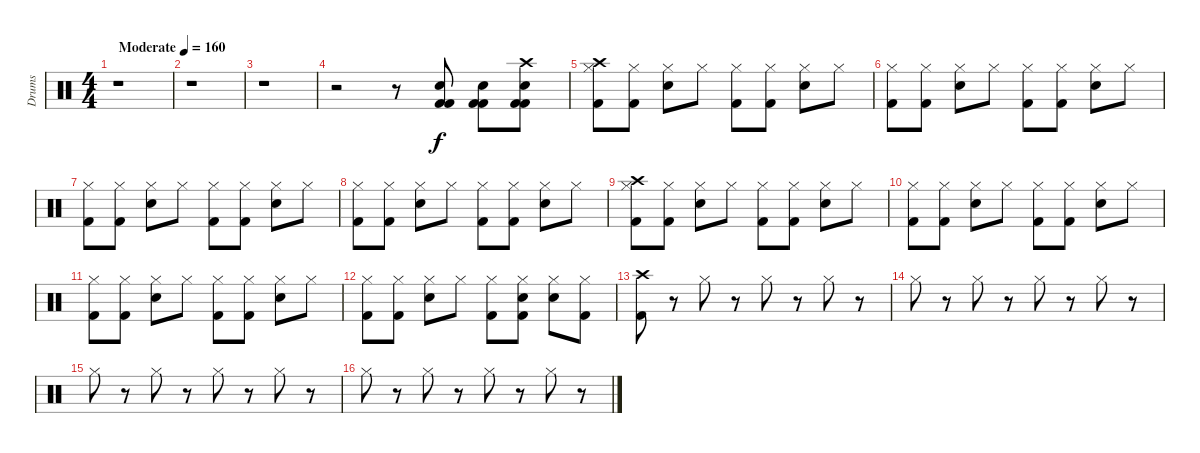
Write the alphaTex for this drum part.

\track ("Drums" "Drums") {instrument percussion}
\staff {score}
\articulation defaults
\ts (4 4)
\tempo (160 "Moderate")
\clef neutral
\ks c
r.1{dy f} |
r.1 |
r.1 |
r.2 r.8 ("Kick (hit) 2" "Kick (hit) 2" "Electric Snare (hit)").8 ("Kick (hit) 2" "Kick (hit) 2" "Electric Snare (hit)").8 ("Kick (hit) 2" "Kick (hit) 2" "Electric Snare (hit)" "Crash high (hit)").8 |
("Kick (hit) 2" "Crash high (hit)" "Hi-Hat (closed)").8 ("Kick (hit) 2" "Hi-Hat (closed)").8 ("Electric Snare (hit)" "Hi-Hat (closed)").8 "Hi-Hat (closed)".8 ("Kick (hit) 2" "Hi-Hat (closed)").8 ("Kick (hit) 2" "Hi-Hat (closed)").8 ("Electric Snare (hit)" "Hi-Hat (closed)").8 "Hi-Hat (closed)".8 |
("Kick (hit) 2" "Hi-Hat (closed)").8 ("Kick (hit) 2" "Hi-Hat (closed)").8 ("Electric Snare (hit)" "Hi-Hat (closed)").8 "Hi-Hat (closed)".8 ("Kick (hit) 2" "Hi-Hat (closed)").8 ("Kick (hit) 2" "Hi-Hat (closed)").8 ("Electric Snare (hit)" "Hi-Hat (closed)").8 "Hi-Hat (closed)".8 |
("Kick (hit) 2" "Hi-Hat (closed)").8 ("Kick (hit) 2" "Hi-Hat (closed)").8 ("Electric Snare (hit)" "Hi-Hat (closed)").8 "Hi-Hat (closed)".8 ("Kick (hit) 2" "Hi-Hat (closed)").8 ("Kick (hit) 2" "Hi-Hat (closed)").8 ("Electric Snare (hit)" "Hi-Hat (closed)").8 "Hi-Hat (closed)".8 |
("Kick (hit) 2" "Hi-Hat (closed)").8 ("Kick (hit) 2" "Hi-Hat (closed)").8 ("Electric Snare (hit)" "Hi-Hat (closed)").8 "Hi-Hat (closed)".8 ("Kick (hit) 2" "Hi-Hat (closed)").8 ("Kick (hit) 2" "Hi-Hat (closed)").8 ("Electric Snare (hit)" "Hi-Hat (closed)").8 "Hi-Hat (closed)".8 |
("Kick (hit) 2" "Crash high (hit)" "Hi-Hat (closed)").8 ("Kick (hit) 2" "Hi-Hat (closed)").8 ("Electric Snare (hit)" "Hi-Hat (closed)").8 "Hi-Hat (closed)".8 ("Kick (hit) 2" "Hi-Hat (closed)").8 ("Kick (hit) 2" "Hi-Hat (closed)").8 ("Electric Snare (hit)" "Hi-Hat (closed)").8 "Hi-Hat (closed)".8 |
("Kick (hit) 2" "Hi-Hat (closed)").8 ("Kick (hit) 2" "Hi-Hat (closed)").8 ("Electric Snare (hit)" "Hi-Hat (closed)").8 "Hi-Hat (closed)".8 ("Kick (hit) 2" "Hi-Hat (closed)").8 ("Kick (hit) 2" "Hi-Hat (closed)").8 ("Electric Snare (hit)" "Hi-Hat (closed)").8 "Hi-Hat (closed)".8 |
("Kick (hit) 2" "Hi-Hat (closed)").8 ("Kick (hit) 2" "Hi-Hat (closed)").8 ("Electric Snare (hit)" "Hi-Hat (closed)").8 "Hi-Hat (closed)".8 ("Kick (hit) 2" "Hi-Hat (closed)").8 ("Kick (hit) 2" "Hi-Hat (closed)").8 ("Electric Snare (hit)" "Hi-Hat (closed)").8 "Hi-Hat (closed)".8 |
("Kick (hit) 2" "Hi-Hat (closed)").8 ("Kick (hit) 2" "Hi-Hat (closed)").8 ("Electric Snare (hit)" "Hi-Hat (closed)").8 "Hi-Hat (closed)".8 ("Kick (hit) 2" "Hi-Hat (closed)").8 ("Kick (hit) 2" "Electric Snare (hit)" "Hi-Hat (closed)").8 ("Electric Snare (hit)" "Hi-Hat (closed)").8 ("Kick (hit) 2" "Hi-Hat (closed)").8 |
("Kick (hit) 2" "Crash high (hit)").8 r.8 "Hi-Hat (closed)".8 r.8 "Hi-Hat (closed)".8 r.8 "Hi-Hat (closed)".8 r.8 |
"Hi-Hat (closed)".8 r.8 "Hi-Hat (closed)".8 r.8 "Hi-Hat (closed)".8 r.8 "Hi-Hat (closed)".8 r.8 |
"Hi-Hat (closed)".8 r.8 "Hi-Hat (closed)".8 r.8 "Hi-Hat (closed)".8 r.8 "Hi-Hat (closed)".8 r.8 |
"Hi-Hat (closed)".8 r.8 "Hi-Hat (closed)".8 r.8 "Hi-Hat (closed)".8 r.8 "Hi-Hat (closed)".8 r.8
